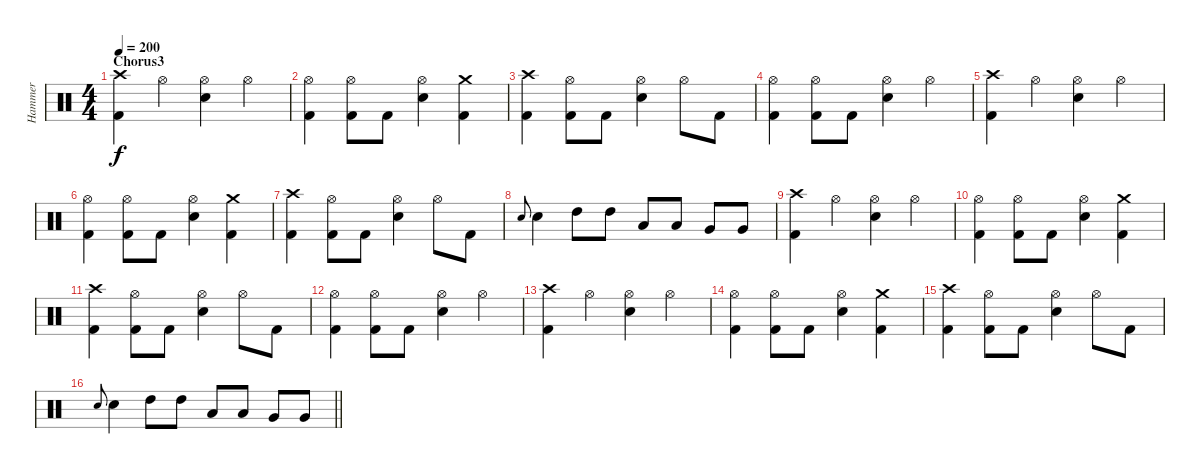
\track ("Hammer" "Hammer") {instrument percussion}
\staff {score}
\articulation defaults
\ts (4 4)
\section ("" "Chorus3")
\tempo 200
\clef neutral
\ks c
("Kick (hit) 2" "Crash high (hit)").4{dy f} "Hi-Hat (open)".4 ("Hi-Hat (open)" "Snare (hit) 2").4 "Hi-Hat (open)".4 |
("Kick (hit) 2" "Hi-Hat (open)").4 ("Kick (hit) 2" "Hi-Hat (open)").8 "Kick (hit) 2".8 ("Hi-Hat (open)" "Snare (hit) 2").4 ("Kick (hit) 2" "Crash medium (hit)").4 |
("Kick (hit) 2" "Crash high (hit)").4 ("Kick (hit) 2" "Hi-Hat (open)").8 "Kick (hit) 2".8 ("Snare (hit) 2" "Hi-Hat (open)").4 "Hi-Hat (open)".8 "Kick (hit) 2".8 |
("Kick (hit) 2" "Hi-Hat (open)").4 ("Kick (hit) 2" "Hi-Hat (open)").8 "Kick (hit) 2".8 ("Snare (hit) 2" "Hi-Hat (open)").4 "Hi-Hat (open)".4 |
("Kick (hit) 2" "Crash high (hit)").4 "Hi-Hat (open)".4 ("Hi-Hat (open)" "Snare (hit) 2").4 "Hi-Hat (open)".4 |
("Kick (hit) 2" "Hi-Hat (open)").4 ("Kick (hit) 2" "Hi-Hat (open)").8 "Kick (hit) 2".8 ("Hi-Hat (open)" "Snare (hit) 2").4 ("Kick (hit) 2" "Crash medium (hit)").4 |
("Kick (hit) 2" "Crash high (hit)").4 ("Kick (hit) 2" "Hi-Hat (open)").8 "Kick (hit) 2".8 ("Snare (hit) 2" "Hi-Hat (open)").4 "Hi-Hat (open)".8 "Kick (hit) 2".8 |
"Snare (hit) 2".8{gr onbeat} "Snare (hit) 2".4 "High Tom (hit)".8 "High Tom (hit)".8 "Low Tom (hit)".8 "Low Tom (hit)".8 "Very Low Tom (hit)".8 "Very Low Tom (hit)".8 |
("Kick (hit) 2" "Crash high (hit)").4 "Hi-Hat (open)".4 ("Hi-Hat (open)" "Snare (hit) 2").4 "Hi-Hat (open)".4 |
("Kick (hit) 2" "Hi-Hat (open)").4 ("Kick (hit) 2" "Hi-Hat (open)").8 "Kick (hit) 2".8 ("Hi-Hat (open)" "Snare (hit) 2").4 ("Kick (hit) 2" "Crash medium (hit)").4 |
("Kick (hit) 2" "Crash high (hit)").4 ("Kick (hit) 2" "Hi-Hat (open)").8 "Kick (hit) 2".8 ("Snare (hit) 2" "Hi-Hat (open)").4 "Hi-Hat (open)".8 "Kick (hit) 2".8 |
("Kick (hit) 2" "Hi-Hat (open)").4 ("Kick (hit) 2" "Hi-Hat (open)").8 "Kick (hit) 2".8 ("Snare (hit) 2" "Hi-Hat (open)").4 "Hi-Hat (open)".4 |
("Kick (hit) 2" "Crash high (hit)").4 "Hi-Hat (open)".4 ("Hi-Hat (open)" "Snare (hit) 2").4 "Hi-Hat (open)".4 |
("Kick (hit) 2" "Hi-Hat (open)").4 ("Kick (hit) 2" "Hi-Hat (open)").8 "Kick (hit) 2".8 ("Hi-Hat (open)" "Snare (hit) 2").4 ("Kick (hit) 2" "Crash medium (hit)").4 |
("Kick (hit) 2" "Crash high (hit)").4 ("Kick (hit) 2" "Hi-Hat (open)").8 "Kick (hit) 2".8 ("Snare (hit) 2" "Hi-Hat (open)").4 "Hi-Hat (open)".8 "Kick (hit) 2".8 |
\barLineRight lightlight "Snare (hit) 2".8{gr onbeat} "Snare (hit) 2".4 "High Tom (hit)".8 "High Tom (hit)".8 "Low Tom (hit)".8 "Low Tom (hit)".8 "Very Low Tom (hit)".8 "Very Low Tom (hit)".8
